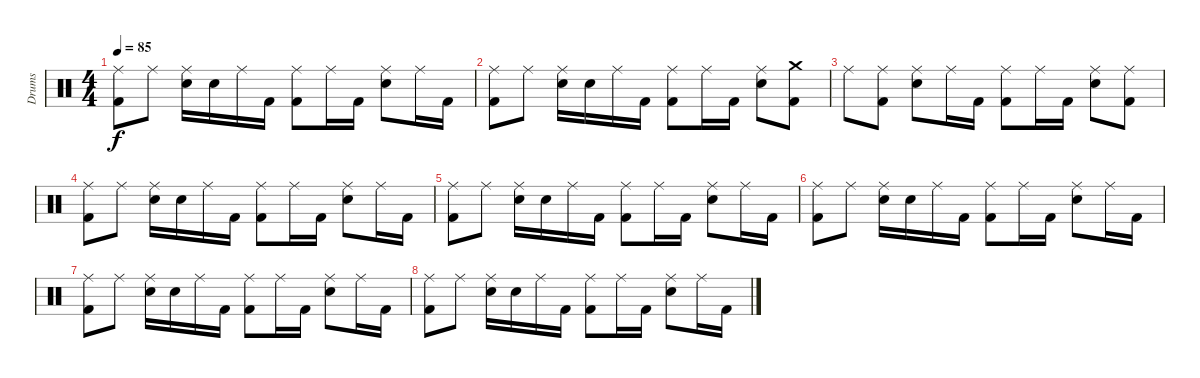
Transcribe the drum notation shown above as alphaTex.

\track ("Drums" "Drums") {instrument percussion}
\staff {score}
\articulation defaults
\ts (4 4)
\tempo 85
\clef neutral
\ks c
("Ride (middle)" "Kick (hit) 2").8{dy f} "Ride (middle)".8 ("Ride (middle)" "Snare (hit) 2").16 "Snare (hit) 2".16 "Ride (middle)".16 "Kick (hit) 2".16 ("Ride (middle)" "Kick (hit) 2").8 "Ride (middle)".16 "Kick (hit) 2".16 ("Ride (middle)" "Snare (hit) 2").8 "Ride (middle)".16 "Kick (hit) 2".16 |
("Ride (middle)" "Kick (hit) 2").8 "Ride (middle)".8 ("Ride (middle)" "Snare (hit) 2").16 "Snare (hit) 2".16 "Ride (middle)".16 "Kick (hit) 2".16 ("Ride (middle)" "Kick (hit) 2").8 "Ride (middle)".16 "Kick (hit) 2".16 ("Ride (middle)" "Snare (hit) 2").8 ("Crash medium (hit)" "Kick (hit) 2").8 |
"Ride (middle)".8 ("Ride (middle)" "Kick (hit) 2").8 ("Ride (middle)" "Snare (hit) 2").8 "Ride (middle)".16 "Kick (hit) 2".16 ("Ride (middle)" "Kick (hit) 2").8 "Ride (middle)".16 "Kick (hit) 2".16 ("Ride (middle)" "Snare (hit) 2").8 ("Ride (middle)" "Kick (hit) 2").8 |
("Ride (middle)" "Kick (hit) 2").8 "Ride (middle)".8 ("Ride (middle)" "Snare (hit) 2").16 "Snare (hit) 2".16 "Ride (middle)".16 "Kick (hit) 2".16 ("Ride (middle)" "Kick (hit) 2").8 "Ride (middle)".16 "Kick (hit) 2".16 ("Ride (middle)" "Snare (hit) 2").8 "Ride (middle)".16 "Kick (hit) 2".16 |
("Ride (middle)" "Kick (hit) 2").8 "Ride (middle)".8 ("Ride (middle)" "Snare (hit) 2").16 "Snare (hit) 2".16 "Ride (middle)".16 "Kick (hit) 2".16 ("Ride (middle)" "Kick (hit) 2").8 "Ride (middle)".16 "Kick (hit) 2".16 ("Ride (middle)" "Snare (hit) 2").8 "Ride (middle)".16 "Kick (hit) 2".16 |
("Ride (middle)" "Kick (hit) 2").8 "Ride (middle)".8 ("Ride (middle)" "Snare (hit) 2").16 "Snare (hit) 2".16 "Ride (middle)".16 "Kick (hit) 2".16 ("Ride (middle)" "Kick (hit) 2").8 "Ride (middle)".16 "Kick (hit) 2".16 ("Ride (middle)" "Snare (hit) 2").8 "Ride (middle)".16 "Kick (hit) 2".16 |
("Ride (middle)" "Kick (hit) 2").8 "Ride (middle)".8 ("Ride (middle)" "Snare (hit) 2").16 "Snare (hit) 2".16 "Ride (middle)".16 "Kick (hit) 2".16 ("Ride (middle)" "Kick (hit) 2").8 "Ride (middle)".16 "Kick (hit) 2".16 ("Ride (middle)" "Snare (hit) 2").8 "Ride (middle)".16 "Kick (hit) 2".16 |
("Ride (middle)" "Kick (hit) 2").8 "Ride (middle)".8 ("Ride (middle)" "Snare (hit) 2").16 "Snare (hit) 2".16 "Ride (middle)".16 "Kick (hit) 2".16 ("Ride (middle)" "Kick (hit) 2").8 "Ride (middle)".16 "Kick (hit) 2".16 ("Ride (middle)" "Snare (hit) 2").8 "Ride (middle)".16 "Kick (hit) 2".16
